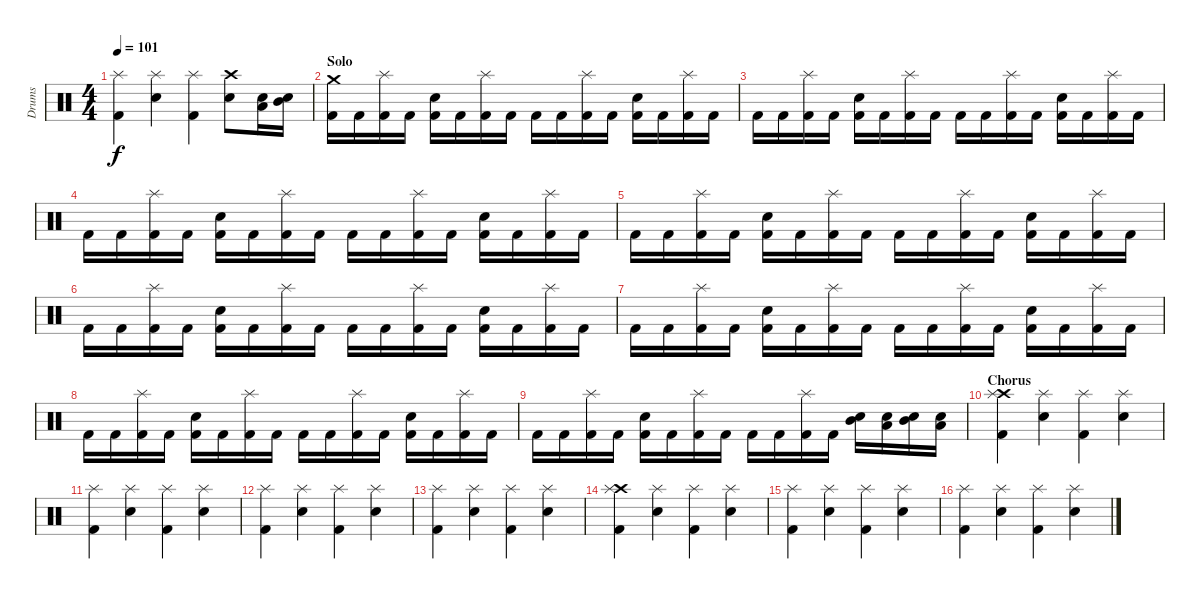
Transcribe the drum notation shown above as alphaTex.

\track ("Drums" "Drums") {instrument percussion}
\staff {score}
\articulation defaults
\ts (4 4)
\tempo 101
\clef neutral
\ks c
("Splash (hit)" "Kick (hit) 2").4{dy f} ("Splash (hit)" "Snare (hit) 2").4 ("Splash (hit)" "Kick (hit) 2").4 ("Crash high (hit)" "Snare (hit) 2").8 ("Low Tom (hit)" "Electric Snare (hit)").16 ("Mid Tom (hit)" "Electric Snare (hit)").16 |
\section ("" "Solo")
("Crash medium (hit)" "Kick (hit) 2").16 "Kick (hit) 2".16 ("Splash (hit)" "Kick (hit) 2").16 "Kick (hit) 2".16 ("Snare (hit) 2" "Kick (hit) 2").16 "Kick (hit) 2".16 ("Splash (hit)" "Kick (hit) 2").16 "Kick (hit) 2".16 "Kick (hit) 2".16 "Kick (hit) 2".16 ("Splash (hit)" "Kick (hit) 2").16 "Kick (hit) 2".16 ("Snare (hit) 2" "Kick (hit) 2").16 "Kick (hit) 2".16 ("Splash (hit)" "Kick (hit) 2").16 "Kick (hit) 2".16 |
"Kick (hit) 2".16 "Kick (hit) 2".16 ("Splash (hit)" "Kick (hit) 2").16 "Kick (hit) 2".16 ("Snare (hit) 2" "Kick (hit) 2").16 "Kick (hit) 2".16 ("Splash (hit)" "Kick (hit) 2").16 "Kick (hit) 2".16 "Kick (hit) 2".16 "Kick (hit) 2".16 ("Splash (hit)" "Kick (hit) 2").16 "Kick (hit) 2".16 ("Snare (hit) 2" "Kick (hit) 2").16 "Kick (hit) 2".16 ("Splash (hit)" "Kick (hit) 2").16 "Kick (hit) 2".16 |
"Kick (hit) 2".16 "Kick (hit) 2".16 ("Splash (hit)" "Kick (hit) 2").16 "Kick (hit) 2".16 ("Snare (hit) 2" "Kick (hit) 2").16 "Kick (hit) 2".16 ("Splash (hit)" "Kick (hit) 2").16 "Kick (hit) 2".16 "Kick (hit) 2".16 "Kick (hit) 2".16 ("Splash (hit)" "Kick (hit) 2").16 "Kick (hit) 2".16 ("Snare (hit) 2" "Kick (hit) 2").16 "Kick (hit) 2".16 ("Splash (hit)" "Kick (hit) 2").16 "Kick (hit) 2".16 |
"Kick (hit) 2".16 "Kick (hit) 2".16 ("Splash (hit)" "Kick (hit) 2").16 "Kick (hit) 2".16 ("Snare (hit) 2" "Kick (hit) 2").16 "Kick (hit) 2".16 ("Splash (hit)" "Kick (hit) 2").16 "Kick (hit) 2".16 "Kick (hit) 2".16 "Kick (hit) 2".16 ("Splash (hit)" "Kick (hit) 2").16 "Kick (hit) 2".16 ("Snare (hit) 2" "Kick (hit) 2").16 "Kick (hit) 2".16 ("Splash (hit)" "Kick (hit) 2").16 "Kick (hit) 2".16 |
"Kick (hit) 2".16 "Kick (hit) 2".16 ("Splash (hit)" "Kick (hit) 2").16 "Kick (hit) 2".16 ("Snare (hit) 2" "Kick (hit) 2").16 "Kick (hit) 2".16 ("Splash (hit)" "Kick (hit) 2").16 "Kick (hit) 2".16 "Kick (hit) 2".16 "Kick (hit) 2".16 ("Splash (hit)" "Kick (hit) 2").16 "Kick (hit) 2".16 ("Snare (hit) 2" "Kick (hit) 2").16 "Kick (hit) 2".16 ("Splash (hit)" "Kick (hit) 2").16 "Kick (hit) 2".16 |
"Kick (hit) 2".16 "Kick (hit) 2".16 ("Splash (hit)" "Kick (hit) 2").16 "Kick (hit) 2".16 ("Snare (hit) 2" "Kick (hit) 2").16 "Kick (hit) 2".16 ("Splash (hit)" "Kick (hit) 2").16 "Kick (hit) 2".16 "Kick (hit) 2".16 "Kick (hit) 2".16 ("Splash (hit)" "Kick (hit) 2").16 "Kick (hit) 2".16 ("Snare (hit) 2" "Kick (hit) 2").16 "Kick (hit) 2".16 ("Splash (hit)" "Kick (hit) 2").16 "Kick (hit) 2".16 |
"Kick (hit) 2".16 "Kick (hit) 2".16 ("Splash (hit)" "Kick (hit) 2").16 "Kick (hit) 2".16 ("Snare (hit) 2" "Kick (hit) 2").16 "Kick (hit) 2".16 ("Splash (hit)" "Kick (hit) 2").16 "Kick (hit) 2".16 "Kick (hit) 2".16 "Kick (hit) 2".16 ("Splash (hit)" "Kick (hit) 2").16 "Kick (hit) 2".16 ("Snare (hit) 2" "Kick (hit) 2").16 "Kick (hit) 2".16 ("Splash (hit)" "Kick (hit) 2").16 "Kick (hit) 2".16 |
"Kick (hit) 2".16 "Kick (hit) 2".16 ("Splash (hit)" "Kick (hit) 2").16 "Kick (hit) 2".16 ("Snare (hit) 2" "Kick (hit) 2").16 "Kick (hit) 2".16 ("Splash (hit)" "Kick (hit) 2").16 "Kick (hit) 2".16 "Kick (hit) 2".16 "Kick (hit) 2".16 ("Splash (hit)" "Kick (hit) 2").16 "Kick (hit) 2".16 ("Electric Snare (hit)" "Mid Tom (hit)").16 ("Electric Snare (hit)" "Low Tom (hit)").16 ("Electric Snare (hit)" "Mid Tom (hit)").16 ("Electric Snare (hit)" "Low Tom (hit)").16 |
\section ("" "Chorus")
("Crash high (hit)" "Splash (hit)" "Kick (hit) 2").4 ("Splash (hit)" "Snare (hit) 2").4 ("Splash (hit)" "Kick (hit) 2").4 ("Splash (hit)" "Snare (hit) 2").4 |
("Splash (hit)" "Kick (hit) 2").4 ("Splash (hit)" "Snare (hit) 2").4 ("Splash (hit)" "Kick (hit) 2").4 ("Splash (hit)" "Snare (hit) 2").4 |
("Splash (hit)" "Kick (hit) 2").4 ("Splash (hit)" "Snare (hit) 2").4 ("Splash (hit)" "Kick (hit) 2").4 ("Splash (hit)" "Snare (hit) 2").4 |
("Splash (hit)" "Kick (hit) 2").4 ("Splash (hit)" "Snare (hit) 2").4 ("Splash (hit)" "Kick (hit) 2").4 ("Splash (hit)" "Snare (hit) 2").4 |
("Crash high (hit)" "Splash (hit)" "Kick (hit) 2").4 ("Splash (hit)" "Snare (hit) 2").4 ("Splash (hit)" "Kick (hit) 2").4 ("Splash (hit)" "Snare (hit) 2").4 |
("Splash (hit)" "Kick (hit) 2").4 ("Splash (hit)" "Snare (hit) 2").4 ("Splash (hit)" "Kick (hit) 2").4 ("Splash (hit)" "Snare (hit) 2").4 |
("Splash (hit)" "Kick (hit) 2").4 ("Splash (hit)" "Snare (hit) 2").4 ("Splash (hit)" "Kick (hit) 2").4 ("Splash (hit)" "Snare (hit) 2").4
